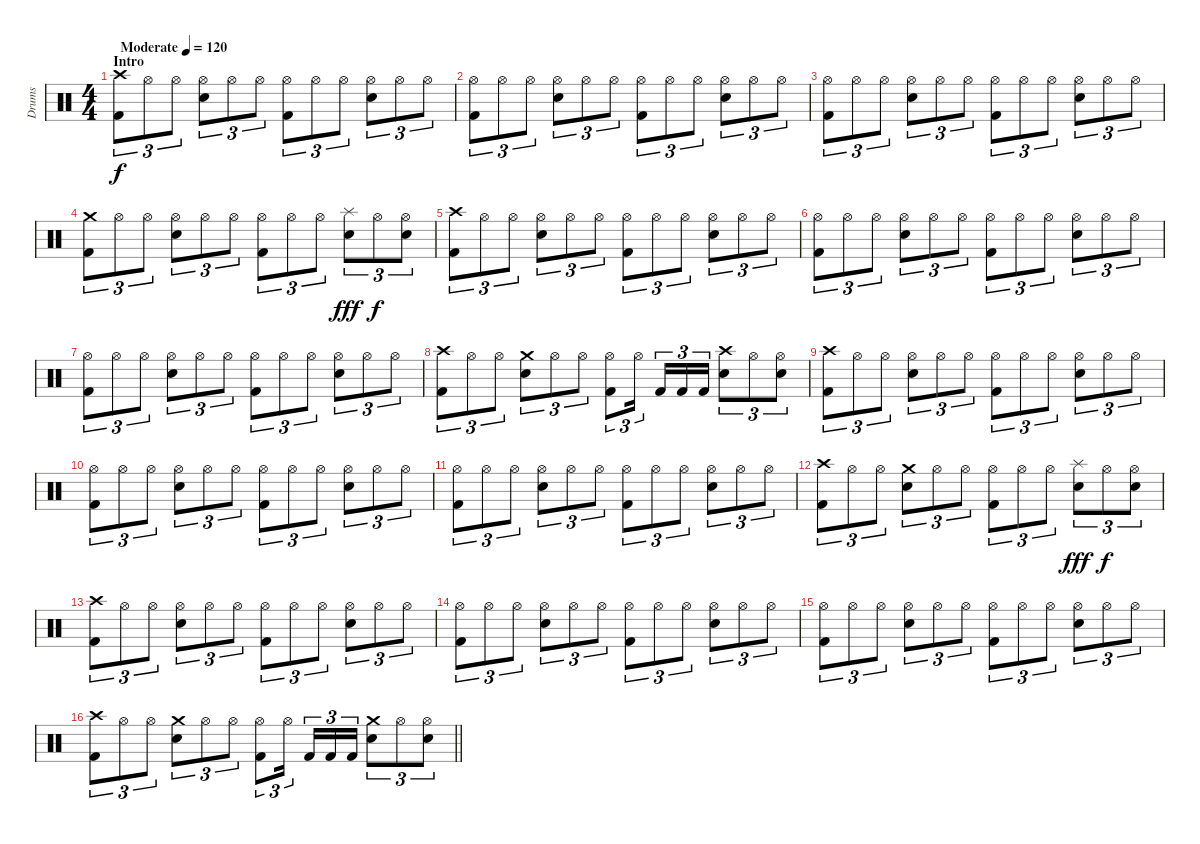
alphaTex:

\track ("Drums" "Drums") {instrument percussion}
\staff {score}
\articulation defaults
\ts (4 4)
\section ("" "Intro")
\tempo (120 "Moderate")
\clef neutral
\ks c
("Crash high (hit)" "Kick (hit) 2").8{tu (3 2) dy f} "Hi-Hat (open)".8{tu (3 2)} "Hi-Hat (open)".8{tu (3 2)} ("Hi-Hat (open)" "Electric Snare (hit)").8{tu (3 2)} "Hi-Hat (open)".8{tu (3 2)} "Hi-Hat (open)".8{tu (3 2)} ("Hi-Hat (open)" "Kick (hit) 2").8{tu (3 2)} "Hi-Hat (open)".8{tu (3 2)} "Hi-Hat (open)".8{tu (3 2)} ("Hi-Hat (open)" "Electric Snare (hit)").8{tu (3 2)} "Hi-Hat (open)".8{tu (3 2)} "Hi-Hat (open)".8{tu (3 2)} |
("Hi-Hat (open)" "Kick (hit) 2").8{tu (3 2)} "Hi-Hat (open)".8{tu (3 2)} "Hi-Hat (open)".8{tu (3 2)} ("Hi-Hat (open)" "Electric Snare (hit)").8{tu (3 2)} "Hi-Hat (open)".8{tu (3 2)} "Hi-Hat (open)".8{tu (3 2)} ("Hi-Hat (open)" "Kick (hit) 2").8{tu (3 2)} "Hi-Hat (open)".8{tu (3 2)} "Hi-Hat (open)".8{tu (3 2)} ("Hi-Hat (open)" "Electric Snare (hit)").8{tu (3 2)} "Hi-Hat (open)".8{tu (3 2)} "Hi-Hat (open)".8{tu (3 2)} |
("Hi-Hat (open)" "Kick (hit) 2").8{tu (3 2)} "Hi-Hat (open)".8{tu (3 2)} "Hi-Hat (open)".8{tu (3 2)} ("Hi-Hat (open)" "Electric Snare (hit)").8{tu (3 2)} "Hi-Hat (open)".8{tu (3 2)} "Hi-Hat (open)".8{tu (3 2)} ("Hi-Hat (open)" "Kick (hit) 2").8{tu (3 2)} "Hi-Hat (open)".8{tu (3 2)} "Hi-Hat (open)".8{tu (3 2)} ("Hi-Hat (open)" "Electric Snare (hit)").8{tu (3 2)} "Hi-Hat (open)".8{tu (3 2)} "Hi-Hat (open)".8{tu (3 2)} |
("Crash medium (hit)" "Kick (hit) 2").8{tu (3 2)} "Hi-Hat (open)".8{tu (3 2)} "Hi-Hat (open)".8{tu (3 2)} ("Hi-Hat (open)" "Electric Snare (hit)").8{tu (3 2)} "Hi-Hat (open)".8{tu (3 2)} "Hi-Hat (open)".8{tu (3 2)} ("Hi-Hat (open)" "Kick (hit) 2").8{tu (3 2)} "Hi-Hat (open)".8{tu (3 2)} "Hi-Hat (open)".8{tu (3 2)} ("Splash (hit)" "Electric Snare (hit)").8{tu (3 2) dy fff} "Hi-Hat (open)".8{tu (3 2) dy f} ("Hi-Hat (open)" "Electric Snare (hit)").8{tu (3 2)} |
("Crash high (hit)" "Kick (hit) 2").8{tu (3 2)} "Hi-Hat (open)".8{tu (3 2)} "Hi-Hat (open)".8{tu (3 2)} ("Hi-Hat (open)" "Electric Snare (hit)").8{tu (3 2)} "Hi-Hat (open)".8{tu (3 2)} "Hi-Hat (open)".8{tu (3 2)} ("Hi-Hat (open)" "Kick (hit) 2").8{tu (3 2)} "Hi-Hat (open)".8{tu (3 2)} "Hi-Hat (open)".8{tu (3 2)} ("Hi-Hat (open)" "Electric Snare (hit)").8{tu (3 2)} "Hi-Hat (open)".8{tu (3 2)} "Hi-Hat (open)".8{tu (3 2)} |
("Hi-Hat (open)" "Kick (hit) 2").8{tu (3 2)} "Hi-Hat (open)".8{tu (3 2)} "Hi-Hat (open)".8{tu (3 2)} ("Hi-Hat (open)" "Electric Snare (hit)").8{tu (3 2)} "Hi-Hat (open)".8{tu (3 2)} "Hi-Hat (open)".8{tu (3 2)} ("Hi-Hat (open)" "Kick (hit) 2").8{tu (3 2)} "Hi-Hat (open)".8{tu (3 2)} "Hi-Hat (open)".8{tu (3 2)} ("Hi-Hat (open)" "Electric Snare (hit)").8{tu (3 2)} "Hi-Hat (open)".8{tu (3 2)} "Hi-Hat (open)".8{tu (3 2)} |
("Hi-Hat (open)" "Kick (hit) 2").8{tu (3 2)} "Hi-Hat (open)".8{tu (3 2)} "Hi-Hat (open)".8{tu (3 2)} ("Hi-Hat (open)" "Electric Snare (hit)").8{tu (3 2)} "Hi-Hat (open)".8{tu (3 2)} "Hi-Hat (open)".8{tu (3 2)} ("Hi-Hat (open)" "Kick (hit) 2").8{tu (3 2)} "Hi-Hat (open)".8{tu (3 2)} "Hi-Hat (open)".8{tu (3 2)} ("Hi-Hat (open)" "Electric Snare (hit)").8{tu (3 2)} "Hi-Hat (open)".8{tu (3 2)} "Hi-Hat (open)".8{tu (3 2)} |
("Crash high (hit)" "Kick (hit) 2").8{tu (3 2)} "Hi-Hat (open)".8{tu (3 2)} "Hi-Hat (open)".8{tu (3 2)} ("Crash medium (hit)" "Electric Snare (hit)").8{tu (3 2)} "Hi-Hat (open)".8{tu (3 2)} "Hi-Hat (open)".8{tu (3 2)} ("Hi-Hat (open)" "Kick (hit) 2").8{tu (3 2)} "Hi-Hat (open)".16{tu (3 2) beam splitsecondary} "Kick (hit) 2".16{tu (3 2)} "Kick (hit) 2".16{tu (3 2)} "Kick (hit) 2".16{tu (3 2)} ("Crash high (hit)" "Electric Snare (hit)").8{tu (3 2)} "Hi-Hat (open)".8{tu (3 2)} ("Hi-Hat (open)" "Electric Snare (hit)").8{tu (3 2)} |
("Crash high (hit)" "Kick (hit) 2").8{tu (3 2)} "Hi-Hat (open)".8{tu (3 2)} "Hi-Hat (open)".8{tu (3 2)} ("Hi-Hat (open)" "Electric Snare (hit)").8{tu (3 2)} "Hi-Hat (open)".8{tu (3 2)} "Hi-Hat (open)".8{tu (3 2)} ("Hi-Hat (open)" "Kick (hit) 2").8{tu (3 2)} "Hi-Hat (open)".8{tu (3 2)} "Hi-Hat (open)".8{tu (3 2)} ("Hi-Hat (open)" "Electric Snare (hit)").8{tu (3 2)} "Hi-Hat (open)".8{tu (3 2)} "Hi-Hat (open)".8{tu (3 2)} |
("Hi-Hat (open)" "Kick (hit) 2").8{tu (3 2)} "Hi-Hat (open)".8{tu (3 2)} "Hi-Hat (open)".8{tu (3 2)} ("Hi-Hat (open)" "Electric Snare (hit)").8{tu (3 2)} "Hi-Hat (open)".8{tu (3 2)} "Hi-Hat (open)".8{tu (3 2)} ("Hi-Hat (open)" "Kick (hit) 2").8{tu (3 2)} "Hi-Hat (open)".8{tu (3 2)} "Hi-Hat (open)".8{tu (3 2)} ("Hi-Hat (open)" "Electric Snare (hit)").8{tu (3 2)} "Hi-Hat (open)".8{tu (3 2)} "Hi-Hat (open)".8{tu (3 2)} |
("Hi-Hat (open)" "Kick (hit) 2").8{tu (3 2)} "Hi-Hat (open)".8{tu (3 2)} "Hi-Hat (open)".8{tu (3 2)} ("Hi-Hat (open)" "Electric Snare (hit)").8{tu (3 2)} "Hi-Hat (open)".8{tu (3 2)} "Hi-Hat (open)".8{tu (3 2)} ("Hi-Hat (open)" "Kick (hit) 2").8{tu (3 2)} "Hi-Hat (open)".8{tu (3 2)} "Hi-Hat (open)".8{tu (3 2)} ("Hi-Hat (open)" "Electric Snare (hit)").8{tu (3 2)} "Hi-Hat (open)".8{tu (3 2)} "Hi-Hat (open)".8{tu (3 2)} |
("Crash high (hit)" "Kick (hit) 2").8{tu (3 2)} "Hi-Hat (open)".8{tu (3 2)} "Hi-Hat (open)".8{tu (3 2)} ("Crash medium (hit)" "Electric Snare (hit)").8{tu (3 2)} "Hi-Hat (open)".8{tu (3 2)} "Hi-Hat (open)".8{tu (3 2)} ("Hi-Hat (open)" "Kick (hit) 2").8{tu (3 2)} "Hi-Hat (open)".8{tu (3 2)} "Hi-Hat (open)".8{tu (3 2)} ("Splash (hit)" "Electric Snare (hit)").8{tu (3 2) dy fff} "Hi-Hat (open)".8{tu (3 2) dy f} ("Hi-Hat (open)" "Electric Snare (hit)").8{tu (3 2)} |
("Crash high (hit)" "Kick (hit) 2").8{tu (3 2)} "Hi-Hat (open)".8{tu (3 2)} "Hi-Hat (open)".8{tu (3 2)} ("Hi-Hat (open)" "Electric Snare (hit)").8{tu (3 2)} "Hi-Hat (open)".8{tu (3 2)} "Hi-Hat (open)".8{tu (3 2)} ("Hi-Hat (open)" "Kick (hit) 2").8{tu (3 2)} "Hi-Hat (open)".8{tu (3 2)} "Hi-Hat (open)".8{tu (3 2)} ("Hi-Hat (open)" "Electric Snare (hit)").8{tu (3 2)} "Hi-Hat (open)".8{tu (3 2)} "Hi-Hat (open)".8{tu (3 2)} |
("Hi-Hat (open)" "Kick (hit) 2").8{tu (3 2)} "Hi-Hat (open)".8{tu (3 2)} "Hi-Hat (open)".8{tu (3 2)} ("Hi-Hat (open)" "Electric Snare (hit)").8{tu (3 2)} "Hi-Hat (open)".8{tu (3 2)} "Hi-Hat (open)".8{tu (3 2)} ("Hi-Hat (open)" "Kick (hit) 2").8{tu (3 2)} "Hi-Hat (open)".8{tu (3 2)} "Hi-Hat (open)".8{tu (3 2)} ("Hi-Hat (open)" "Electric Snare (hit)").8{tu (3 2)} "Hi-Hat (open)".8{tu (3 2)} "Hi-Hat (open)".8{tu (3 2)} |
("Hi-Hat (open)" "Kick (hit) 2").8{tu (3 2)} "Hi-Hat (open)".8{tu (3 2)} "Hi-Hat (open)".8{tu (3 2)} ("Hi-Hat (open)" "Electric Snare (hit)").8{tu (3 2)} "Hi-Hat (open)".8{tu (3 2)} "Hi-Hat (open)".8{tu (3 2)} ("Hi-Hat (open)" "Kick (hit) 2").8{tu (3 2)} "Hi-Hat (open)".8{tu (3 2)} "Hi-Hat (open)".8{tu (3 2)} ("Hi-Hat (open)" "Electric Snare (hit)").8{tu (3 2)} "Hi-Hat (open)".8{tu (3 2)} "Hi-Hat (open)".8{tu (3 2)} |
\barLineRight lightlight
("Crash high (hit)" "Kick (hit) 2").8{tu (3 2)} "Hi-Hat (open)".8{tu (3 2)} "Hi-Hat (open)".8{tu (3 2)} ("Crash medium (hit)" "Electric Snare (hit)").8{tu (3 2)} "Hi-Hat (open)".8{tu (3 2)} "Hi-Hat (open)".8{tu (3 2)} ("Hi-Hat (open)" "Kick (hit) 2").8{tu (3 2)} "Hi-Hat (open)".16{tu (3 2) beam splitsecondary} "Kick (hit) 2".16{tu (3 2)} "Kick (hit) 2".16{tu (3 2)} "Kick (hit) 2".16{tu (3 2)} ("Crash medium (hit)" "Electric Snare (hit)").8{tu (3 2)} "Hi-Hat (open)".8{tu (3 2)} ("Hi-Hat (open)" "Electric Snare (hit)").8{tu (3 2)}
